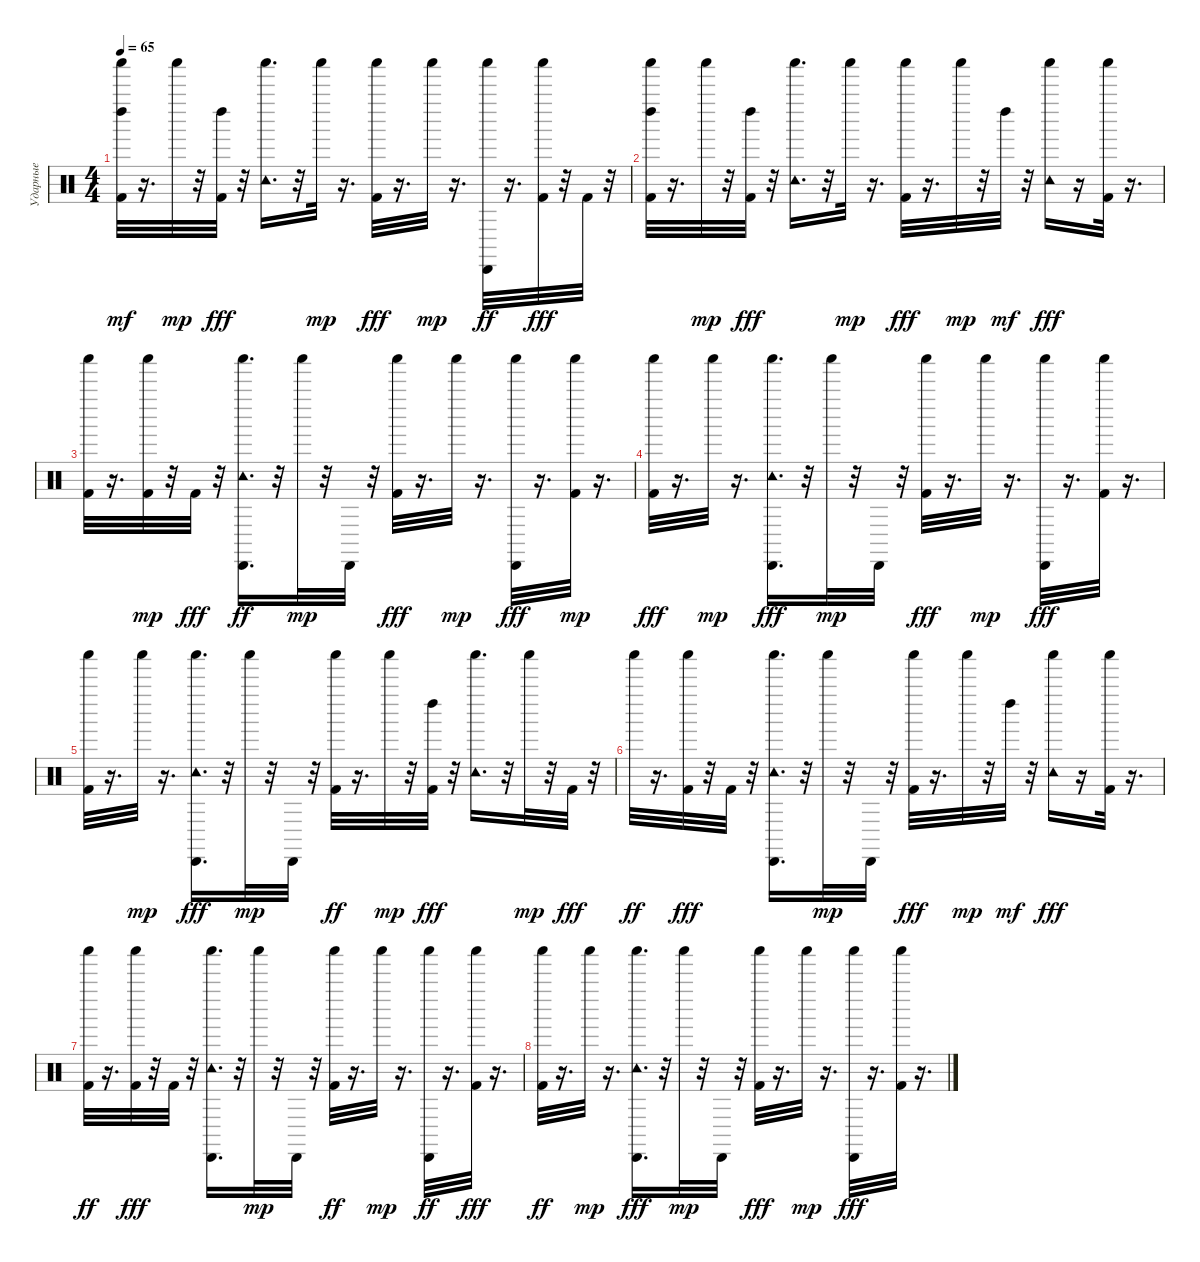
\track ("Ударные" "Ударные") {instrument percussion}
\staff {score}
\articulation defaults
\ts (4 4)
\tempo 65
\clef neutral
\ks c
("Kick (hit) 2" "Shaker (hit)" "Left Maraca (hit)").32{dy mf} r.16{d} "Shaker (hit)".32{dy mp} r.32 ("Left Maraca (hit)" "Kick (hit) 2").32{dy fff} r.32 ("Shaker (hit)" "Tambourine (hit)").16{d} r.32 "Shaker (hit)".32{dy mp} r.16{d} ("Shaker (hit)" "Kick (hit) 2").32{dy fff} r.16{d} "Shaker (hit)".32{dy mp} r.16{d} ("Shaker (hit)" "Cabasa (hit)").32{dy ff} r.16{d} ("Shaker (hit)" "Kick (hit) 2").32{dy fff} r.32 "Kick (hit) 2".32 r.32 |
("Left Maraca (hit)" "Shaker (hit)" "Kick (hit) 2").32 r.16{d} "Shaker (hit)".32{dy mp} r.32 ("Left Maraca (hit)" "Kick (hit) 2").32{dy fff} r.32 ("Shaker (hit)" "Tambourine (hit)").16{d} r.32 "Shaker (hit)".32{dy mp} r.16{d} ("Shaker (hit)" "Kick (hit) 2").32{dy fff} r.16{d} "Shaker (hit)".32{dy mp} r.32 "Left Maraca (hit)".32{dy mf} r.32 ("Shaker (hit)" "Tambourine (hit)").16{dy fff} r.16 ("Shaker (hit)" "Kick (hit) 2").32 r.16{d} |
("Shaker (hit)" "Kick (hit) 2").32 r.16{d} ("Kick (hit) 2" "Shaker (hit)").32{dy mp} r.32 "Kick (hit) 2".32{dy fff} r.32 ("Shaker (hit)" "Tambourine (hit)" "Cabasa (hit)").16{d dy ff} r.32 "Shaker (hit)".32{dy mp} r.32 "Cabasa (hit)".32 r.32 ("Shaker (hit)" "Kick (hit) 2").32{dy fff} r.16{d} "Shaker (hit)".32{dy mp} r.16{d} ("Cabasa (hit)" "Shaker (hit)").32{dy fff} r.16{d} ("Kick (hit) 2" "Shaker (hit)").32{dy mp} r.16{d} |
("Shaker (hit)" "Kick (hit) 2").32{dy fff} r.16{d} "Shaker (hit)".32{dy mp} r.16{d} ("Cabasa (hit)" "Shaker (hit)" "Tambourine (hit)").16{d dy fff} r.32 "Shaker (hit)".32{dy mp} r.32 "Cabasa (hit)".32 r.32 ("Kick (hit) 2" "Shaker (hit)").32{dy fff} r.16{d} "Shaker (hit)".32{dy mp} r.16{d} ("Shaker (hit)" "Cabasa (hit)").32{dy fff} r.16{d} ("Shaker (hit)" "Kick (hit) 2").32 r.16{d} |
("Shaker (hit)" "Kick (hit) 2").32 r.16{d} "Shaker (hit)".32{dy mp} r.16{d} ("Cabasa (hit)" "Shaker (hit)" "Tambourine (hit)").16{d dy fff} r.32 "Shaker (hit)".32{dy mp} r.32 "Cabasa (hit)".32 r.32 ("Kick (hit) 2" "Shaker (hit)").32{dy ff} r.16{d} "Shaker (hit)".32{dy mp} r.32 ("Left Maraca (hit)" "Kick (hit) 2").32{dy fff} r.32 ("Tambourine (hit)" "Shaker (hit)").16{d} r.32 "Shaker (hit)".32{dy mp} r.32 "Kick (hit) 2".32{dy fff} r.32 |
"Shaker (hit)".32{dy ff} r.16{d} ("Shaker (hit)" "Kick (hit) 2").32{dy fff} r.32 "Kick (hit) 2".32 r.32 ("Shaker (hit)" "Cabasa (hit)" "Tambourine (hit)").16{d} r.32 "Shaker (hit)".32{dy mp} r.32 "Cabasa (hit)".32 r.32 ("Shaker (hit)" "Kick (hit) 2").32{dy fff} r.16{d} "Shaker (hit)".32{dy mp} r.32 "Left Maraca (hit)".32{dy mf} r.32 ("Tambourine (hit)" "Shaker (hit)").16{dy fff} r.16 ("Shaker (hit)" "Kick (hit) 2").32 r.16{d} |
("Kick (hit) 2" "Shaker (hit)").32{dy ff} r.16{d} ("Shaker (hit)" "Kick (hit) 2").32{dy fff} r.32 "Kick (hit) 2".32 r.32 ("Cabasa (hit)" "Shaker (hit)" "Tambourine (hit)").16{d} r.32 "Shaker (hit)".32{dy mp} r.32 "Cabasa (hit)".32 r.32 ("Kick (hit) 2" "Shaker (hit)").32{dy ff} r.16{d} "Shaker (hit)".32{dy mp} r.16{d} ("Shaker (hit)" "Cabasa (hit)").32{dy ff} r.16{d} ("Shaker (hit)" "Kick (hit) 2").32{dy fff} r.16{d} |
("Kick (hit) 2" "Shaker (hit)").32{dy ff} r.16{d} "Shaker (hit)".32{dy mp} r.16{d} ("Shaker (hit)" "Cabasa (hit)" "Tambourine (hit)").16{d dy fff} r.32 "Shaker (hit)".32{dy mp} r.32 "Cabasa (hit)".32 r.32 ("Kick (hit) 2" "Shaker (hit)").32{dy fff} r.16{d} "Shaker (hit)".32{dy mp} r.16{d} ("Cabasa (hit)" "Shaker (hit)").32{dy fff} r.16{d} ("Shaker (hit)" "Kick (hit) 2").32 r.16{d}
